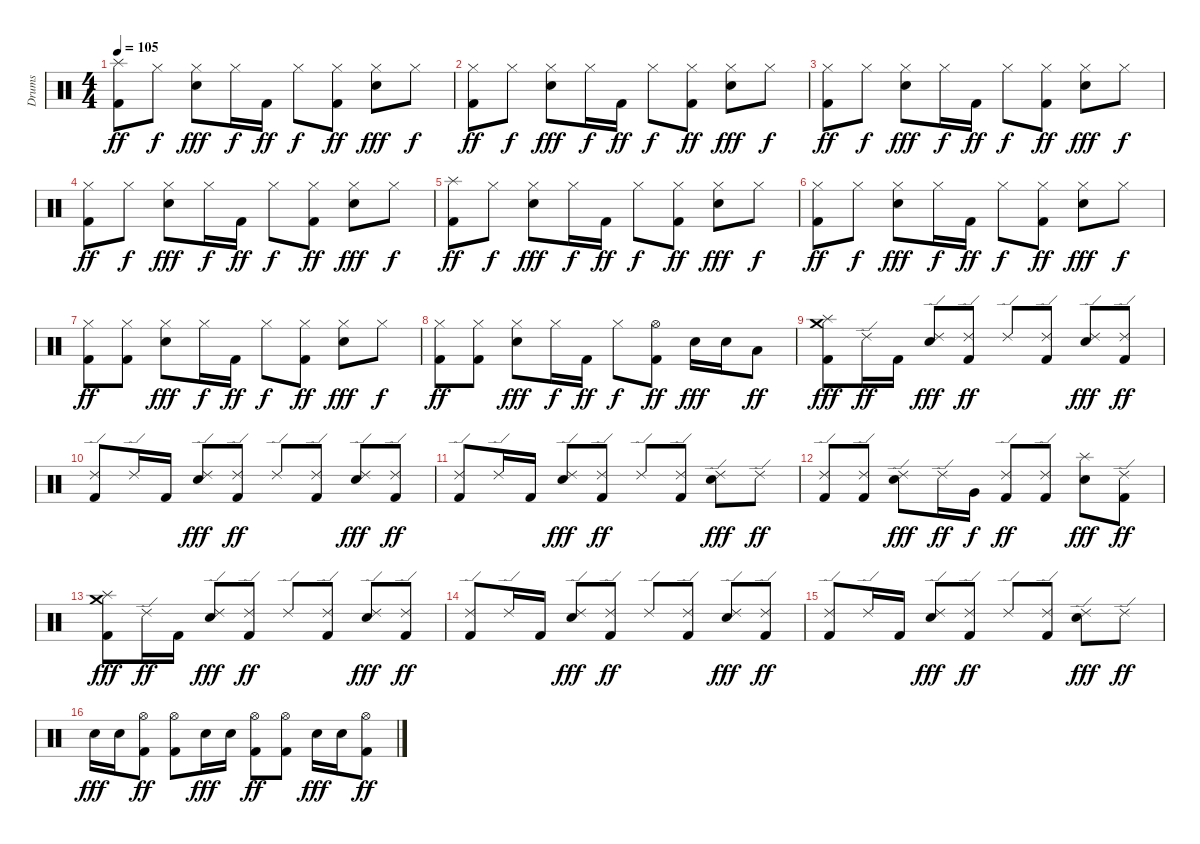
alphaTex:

\track ("Drums" "Drums") {instrument percussion}
\staff {score}
\articulation defaults
\ts (4 4)
\tempo 105
\clef neutral
\ks c
("Splash (hit)" "Kick (hit) 2").8{dy ff} "Hi-Hat (closed)".8{dy f} ("Hi-Hat (closed)" "Electric Snare (hit)").8{dy fff} "Hi-Hat (closed)".16{dy f} "Kick (hit) 2".16{dy ff} "Hi-Hat (closed)".8{dy f} ("Hi-Hat (closed)" "Kick (hit) 2").8{dy ff} ("Hi-Hat (closed)" "Electric Snare (hit)").8{dy fff} "Hi-Hat (closed)".8{dy f} |
("Hi-Hat (closed)" "Kick (hit) 2").8{dy ff} "Hi-Hat (closed)".8{dy f} ("Hi-Hat (closed)" "Electric Snare (hit)").8{dy fff} "Hi-Hat (closed)".16{dy f} "Kick (hit) 2".16{dy ff} "Hi-Hat (closed)".8{dy f} ("Hi-Hat (closed)" "Kick (hit) 2").8{dy ff} ("Hi-Hat (closed)" "Electric Snare (hit)").8{dy fff} "Hi-Hat (closed)".8{dy f} |
("Hi-Hat (closed)" "Kick (hit) 2").8{dy ff} "Hi-Hat (closed)".8{dy f} ("Hi-Hat (closed)" "Electric Snare (hit)").8{dy fff} "Hi-Hat (closed)".16{dy f} "Kick (hit) 2".16{dy ff} "Hi-Hat (closed)".8{dy f} ("Hi-Hat (closed)" "Kick (hit) 2").8{dy ff} ("Hi-Hat (closed)" "Electric Snare (hit)").8{dy fff} "Hi-Hat (closed)".8{dy f} |
("Hi-Hat (closed)" "Kick (hit) 2").8{dy ff} "Hi-Hat (closed)".8{dy f} ("Hi-Hat (closed)" "Electric Snare (hit)").8{dy fff} "Hi-Hat (closed)".16{dy f} "Kick (hit) 2".16{dy ff} "Hi-Hat (closed)".8{dy f} ("Hi-Hat (closed)" "Kick (hit) 2").8{dy ff} ("Hi-Hat (closed)" "Electric Snare (hit)").8{dy fff} "Hi-Hat (closed)".8{dy f} |
("Splash (hit)" "Kick (hit) 2").8{dy ff} "Hi-Hat (closed)".8{dy f} ("Hi-Hat (closed)" "Electric Snare (hit)").8{dy fff} "Hi-Hat (closed)".16{dy f} "Kick (hit) 2".16{dy ff} "Hi-Hat (closed)".8{dy f} ("Hi-Hat (closed)" "Kick (hit) 2").8{dy ff} ("Hi-Hat (closed)" "Electric Snare (hit)").8{dy fff} "Hi-Hat (closed)".8{dy f} |
("Hi-Hat (closed)" "Kick (hit) 2").8{dy ff} "Hi-Hat (closed)".8{dy f} ("Hi-Hat (closed)" "Electric Snare (hit)").8{dy fff} "Hi-Hat (closed)".16{dy f} "Kick (hit) 2".16{dy ff} "Hi-Hat (closed)".8{dy f} ("Hi-Hat (closed)" "Kick (hit) 2").8{dy ff} ("Hi-Hat (closed)" "Electric Snare (hit)").8{dy fff} "Hi-Hat (closed)".8{dy f} |
("Hi-Hat (closed)" "Kick (hit) 2").8{dy ff} ("Hi-Hat (closed)" "Kick (hit) 2").8 ("Hi-Hat (closed)" "Electric Snare (hit)").8{dy fff} "Hi-Hat (closed)".16{dy f} "Kick (hit) 2".16{dy ff} "Hi-Hat (closed)".8{dy f} ("Hi-Hat (closed)" "Kick (hit) 2").8{dy ff} ("Hi-Hat (closed)" "Electric Snare (hit)").8{dy fff} "Hi-Hat (closed)".8{dy f} |
("Hi-Hat (closed)" "Kick (hit) 2").8{dy ff} ("Hi-Hat (closed)" "Kick (hit) 2").8 ("Hi-Hat (closed)" "Electric Snare (hit)").8{dy fff} "Hi-Hat (closed)".16{dy f} "Kick (hit) 2".16{dy ff} "Hi-Hat (closed)".8{dy f} ("Hi-Hat (open)" "Kick (hit) 2").8{dy ff} "Electric Snare (hit)".16{dy fff} "Electric Snare (hit)".16 "Low Tom (hit)".8{dy ff} |
("Splash (hit)" "Crash medium (hit)" "Kick (hit) 2").8{dy fff} "Ride (edge) 2".16{dy ff} "Kick (hit) 2".16 ("Ride (edge) 2" "Electric Snare (hit)").8{dy fff} ("Ride (edge) 2" "Kick (hit) 2").8{dy ff} "Ride (edge) 2".8 ("Ride (edge) 2" "Kick (hit) 2").8 ("Ride (edge) 2" "Electric Snare (hit)").8{dy fff} ("Ride (edge) 2" "Kick (hit) 2").8{dy ff} |
("Ride (edge) 2" "Kick (hit) 2").8 "Ride (edge) 2".16 "Kick (hit) 2".16 ("Ride (edge) 2" "Electric Snare (hit)").8{dy fff} ("Ride (edge) 2" "Kick (hit) 2").8{dy ff} "Ride (edge) 2".8 ("Ride (edge) 2" "Kick (hit) 2").8 ("Ride (edge) 2" "Electric Snare (hit)").8{dy fff} ("Ride (edge) 2" "Kick (hit) 2").8{dy ff} |
("Ride (edge) 2" "Kick (hit) 2").8 "Ride (edge) 2".16 "Kick (hit) 2".16 ("Ride (edge) 2" "Electric Snare (hit)").8{dy fff} ("Ride (edge) 2" "Kick (hit) 2").8{dy ff} "Ride (edge) 2".8 ("Ride (edge) 2" "Kick (hit) 2").8 ("Ride (edge) 2" "Electric Snare (hit)").8{dy fff} "Ride (edge) 2".8{dy ff} |
("Ride (edge) 2" "Kick (hit) 2").8 ("Ride (edge) 2" "Kick (hit) 2").8 ("Ride (edge) 2" "Electric Snare (hit)").8{dy fff} "Ride (edge) 2".16{dy ff} "Very Low Tom (hit)".16{dy f} ("Ride (edge) 2" "Kick (hit) 2").8{dy ff} ("Ride (edge) 2" "Kick (hit) 2").8 ("Splash (hit)" "Electric Snare (hit)").8{dy fff} ("Ride (edge) 2" "Kick (hit) 2").8{dy ff} |
("Splash (hit)" "Crash medium (hit)" "Kick (hit) 2").8{dy fff} "Ride (edge) 2".16{dy ff} "Kick (hit) 2".16 ("Ride (edge) 2" "Electric Snare (hit)").8{dy fff} ("Ride (edge) 2" "Kick (hit) 2").8{dy ff} "Ride (edge) 2".8 ("Ride (edge) 2" "Kick (hit) 2").8 ("Ride (edge) 2" "Electric Snare (hit)").8{dy fff} ("Ride (edge) 2" "Kick (hit) 2").8{dy ff} |
("Ride (edge) 2" "Kick (hit) 2").8 "Ride (edge) 2".16 "Kick (hit) 2".16 ("Ride (edge) 2" "Electric Snare (hit)").8{dy fff} ("Ride (edge) 2" "Kick (hit) 2").8{dy ff} "Ride (edge) 2".8 ("Ride (edge) 2" "Kick (hit) 2").8 ("Ride (edge) 2" "Electric Snare (hit)").8{dy fff} ("Ride (edge) 2" "Kick (hit) 2").8{dy ff} |
("Ride (edge) 2" "Kick (hit) 2").8 "Ride (edge) 2".16 "Kick (hit) 2".16 ("Ride (edge) 2" "Electric Snare (hit)").8{dy fff} ("Ride (edge) 2" "Kick (hit) 2").8{dy ff} "Ride (edge) 2".8 ("Ride (edge) 2" "Kick (hit) 2").8 ("Ride (edge) 2" "Electric Snare (hit)").8{dy fff} "Ride (edge) 2".8{dy ff} |
"Electric Snare (hit)".16{dy fff} "Electric Snare (hit)".16 ("Hi-Hat (open)" "Kick (hit) 2").8{dy ff} ("Hi-Hat (open)" "Kick (hit) 2").8 "Electric Snare (hit)".16{dy fff} "Electric Snare (hit)".16 ("Hi-Hat (open)" "Kick (hit) 2").8{dy ff} ("Hi-Hat (open)" "Kick (hit) 2").8 "Electric Snare (hit)".16{dy fff} "Electric Snare (hit)".16 ("Hi-Hat (open)" "Kick (hit) 2").8{dy ff}
